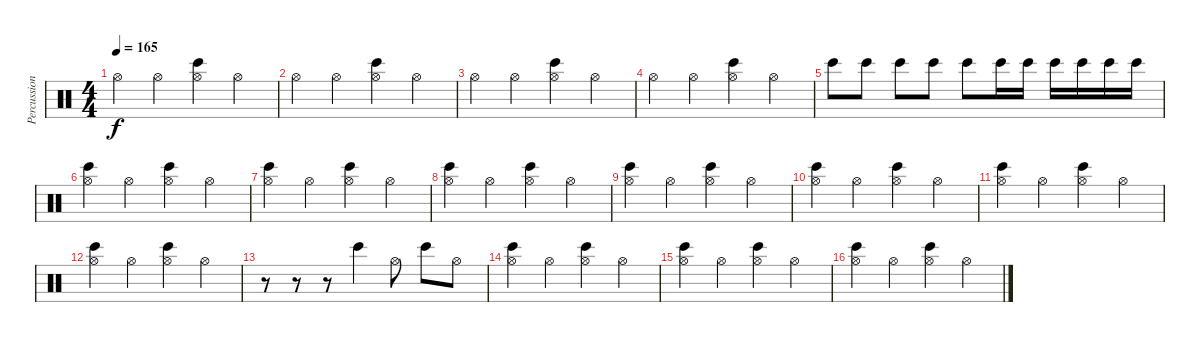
\track ("Percussion" "Percussion") {instrument percussion}
\staff {score}
\articulation defaults
\ts (4 4)
\tempo 165
\clef neutral
\ks c "Hi-Hat (open)".4{dy f} "Hi-Hat (open)".4
("Bongo High (hit)" "Hi-Hat (open)").4 "Hi-Hat (open)".4 |
"Hi-Hat (open)".4 "Hi-Hat (open)".4 ("Bongo High (hit)" "Hi-Hat (open)").4 "Hi-Hat (open)".4 |
"Hi-Hat (open)".4 "Hi-Hat (open)".4 ("Bongo High (hit)" "Hi-Hat (open)").4 "Hi-Hat (open)".4 |
"Hi-Hat (open)".4 "Hi-Hat (open)".4 ("Bongo High (hit)" "Hi-Hat (open)").4 "Hi-Hat (open)".4 |
"Bongo High (hit)".8 "Bongo High (hit)".8 "Bongo High (hit)".8 "Bongo High (hit)".8 "Bongo High (hit)".8 "Bongo High (hit)".16 "Bongo High (hit)".16 "Bongo High (hit)".16 "Bongo High (hit)".16 "Bongo High (hit)".16 "Bongo High (hit)".16 |
("Bongo High (hit)" "Hi-Hat (open)").4 "Hi-Hat (open)".4 ("Bongo High (hit)" "Hi-Hat (open)").4 "Hi-Hat (open)".4 |
("Bongo High (hit)" "Hi-Hat (open)").4 "Hi-Hat (open)".4 ("Bongo High (hit)" "Hi-Hat (open)").4 "Hi-Hat (open)".4 |
("Bongo High (hit)" "Hi-Hat (open)").4 "Hi-Hat (open)".4 ("Bongo High (hit)" "Hi-Hat (open)").4 "Hi-Hat (open)".4 |
("Bongo High (hit)" "Hi-Hat (open)").4 "Hi-Hat (open)".4 ("Bongo High (hit)" "Hi-Hat (open)").4 "Hi-Hat (open)".4 |
("Bongo High (hit)" "Hi-Hat (open)").4 "Hi-Hat (open)".4 ("Bongo High (hit)" "Hi-Hat (open)").4 "Hi-Hat (open)".4 |
("Bongo High (hit)" "Hi-Hat (open)").4 "Hi-Hat (open)".4 ("Bongo High (hit)" "Hi-Hat (open)").4 "Hi-Hat (open)".4 |
("Bongo High (hit)" "Hi-Hat (open)").4 "Hi-Hat (open)".4 ("Bongo High (hit)" "Hi-Hat (open)").4 "Hi-Hat (open)".4 |
r.8 r.8 r.8 "Bongo High (hit)".4 "Hi-Hat (open)".8 "Bongo High (hit)".8 "Hi-Hat (open)".8 |
("Bongo High (hit)" "Hi-Hat (open)").4 "Hi-Hat (open)".4 ("Bongo High (hit)" "Hi-Hat (open)").4 "Hi-Hat (open)".4 |
("Bongo High (hit)" "Hi-Hat (open)").4 "Hi-Hat (open)".4 ("Bongo High (hit)" "Hi-Hat (open)").4 "Hi-Hat (open)".4 |
("Bongo High (hit)" "Hi-Hat (open)").4 "Hi-Hat (open)".4 ("Bongo High (hit)" "Hi-Hat (open)").4 "Hi-Hat (open)".4
